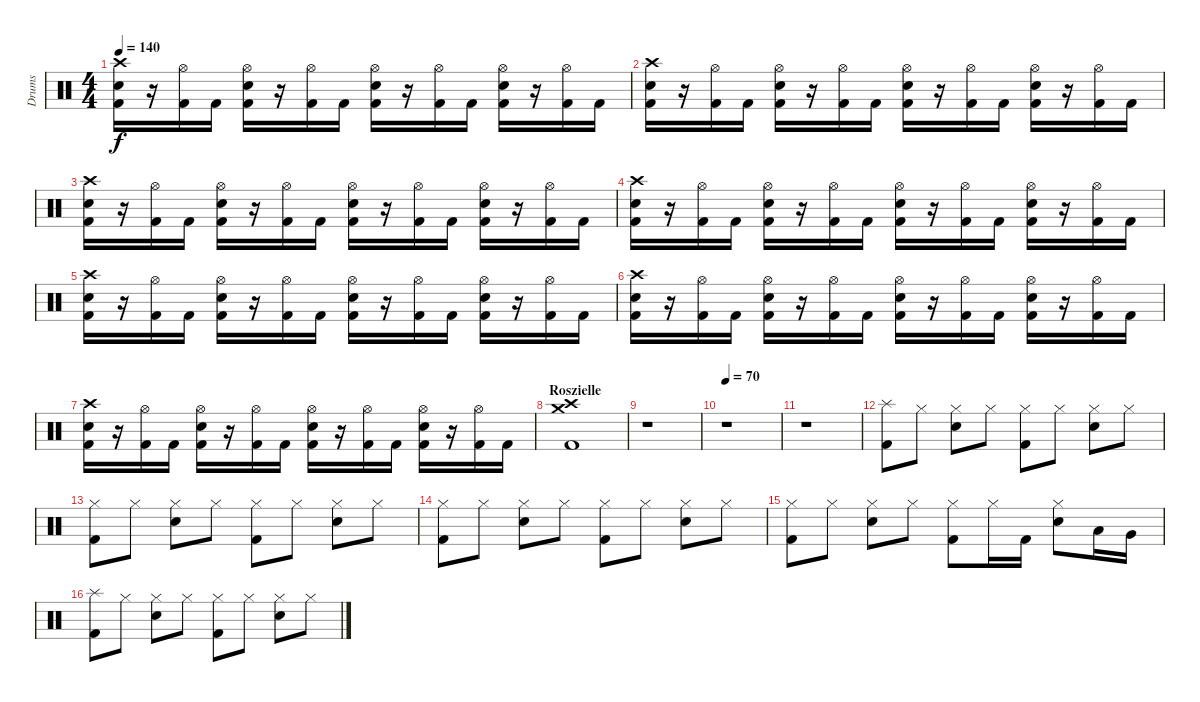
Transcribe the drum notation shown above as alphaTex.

\track ("Drums" "Drums") {instrument percussion}
\staff {score}
\articulation defaults
\ts (4 4)
\tempo 140
\clef neutral
\ks c
("Crash high (hit)" "Electric Snare (hit)" "Kick (hit) 2").16{dy f} r.16 ("Hi-Hat (open)" "Kick (hit) 2").16 "Kick (hit) 2".16 ("Hi-Hat (open)" "Electric Snare (hit)" "Kick (hit) 2").16 r.16 ("Hi-Hat (open)" "Kick (hit) 2").16 "Kick (hit) 2".16 ("Hi-Hat (open)" "Electric Snare (hit)" "Kick (hit) 2").16 r.16 ("Hi-Hat (open)" "Kick (hit) 2").16 "Kick (hit) 2".16 ("Hi-Hat (open)" "Electric Snare (hit)" "Kick (hit) 2").16 r.16 ("Hi-Hat (open)" "Kick (hit) 2").16 "Kick (hit) 2".16 |
("Crash high (hit)" "Electric Snare (hit)" "Kick (hit) 2").16 r.16 ("Hi-Hat (open)" "Kick (hit) 2").16 "Kick (hit) 2".16 ("Hi-Hat (open)" "Electric Snare (hit)" "Kick (hit) 2").16 r.16 ("Hi-Hat (open)" "Kick (hit) 2").16 "Kick (hit) 2".16 ("Hi-Hat (open)" "Electric Snare (hit)" "Kick (hit) 2").16 r.16 ("Hi-Hat (open)" "Kick (hit) 2").16 "Kick (hit) 2".16 ("Hi-Hat (open)" "Electric Snare (hit)" "Kick (hit) 2").16 r.16 ("Hi-Hat (open)" "Kick (hit) 2").16 "Kick (hit) 2".16 |
("Crash high (hit)" "Electric Snare (hit)" "Kick (hit) 2").16 r.16 ("Hi-Hat (open)" "Kick (hit) 2").16 "Kick (hit) 2".16 ("Hi-Hat (open)" "Electric Snare (hit)" "Kick (hit) 2").16 r.16 ("Hi-Hat (open)" "Kick (hit) 2").16 "Kick (hit) 2".16 ("Hi-Hat (open)" "Electric Snare (hit)" "Kick (hit) 2").16 r.16 ("Hi-Hat (open)" "Kick (hit) 2").16 "Kick (hit) 2".16 ("Hi-Hat (open)" "Electric Snare (hit)" "Kick (hit) 2").16 r.16 ("Hi-Hat (open)" "Kick (hit) 2").16 "Kick (hit) 2".16 |
("Crash high (hit)" "Electric Snare (hit)" "Kick (hit) 2").16 r.16 ("Hi-Hat (open)" "Kick (hit) 2").16 "Kick (hit) 2".16 ("Hi-Hat (open)" "Electric Snare (hit)" "Kick (hit) 2").16 r.16 ("Hi-Hat (open)" "Kick (hit) 2").16 "Kick (hit) 2".16 ("Hi-Hat (open)" "Electric Snare (hit)" "Kick (hit) 2").16 r.16 ("Hi-Hat (open)" "Kick (hit) 2").16 "Kick (hit) 2".16 ("Hi-Hat (open)" "Electric Snare (hit)" "Kick (hit) 2").16 r.16 ("Hi-Hat (open)" "Kick (hit) 2").16 "Kick (hit) 2".16 |
("Crash high (hit)" "Electric Snare (hit)" "Kick (hit) 2").16 r.16 ("Hi-Hat (open)" "Kick (hit) 2").16 "Kick (hit) 2".16 ("Hi-Hat (open)" "Electric Snare (hit)" "Kick (hit) 2").16 r.16 ("Hi-Hat (open)" "Kick (hit) 2").16 "Kick (hit) 2".16 ("Hi-Hat (open)" "Electric Snare (hit)" "Kick (hit) 2").16 r.16 ("Hi-Hat (open)" "Kick (hit) 2").16 "Kick (hit) 2".16 ("Hi-Hat (open)" "Electric Snare (hit)" "Kick (hit) 2").16 r.16 ("Hi-Hat (open)" "Kick (hit) 2").16 "Kick (hit) 2".16 |
("Crash high (hit)" "Electric Snare (hit)" "Kick (hit) 2").16 r.16 ("Hi-Hat (open)" "Kick (hit) 2").16 "Kick (hit) 2".16 ("Hi-Hat (open)" "Electric Snare (hit)" "Kick (hit) 2").16 r.16 ("Hi-Hat (open)" "Kick (hit) 2").16 "Kick (hit) 2".16 ("Hi-Hat (open)" "Electric Snare (hit)" "Kick (hit) 2").16 r.16 ("Hi-Hat (open)" "Kick (hit) 2").16 "Kick (hit) 2".16 ("Hi-Hat (open)" "Electric Snare (hit)" "Kick (hit) 2").16 r.16 ("Hi-Hat (open)" "Kick (hit) 2").16 "Kick (hit) 2".16 |
("Crash high (hit)" "Electric Snare (hit)" "Kick (hit) 2").16 r.16 ("Hi-Hat (open)" "Kick (hit) 2").16 "Kick (hit) 2".16 ("Hi-Hat (open)" "Electric Snare (hit)" "Kick (hit) 2").16 r.16 ("Hi-Hat (open)" "Kick (hit) 2").16 "Kick (hit) 2".16 ("Hi-Hat (open)" "Electric Snare (hit)" "Kick (hit) 2").16 r.16 ("Hi-Hat (open)" "Kick (hit) 2").16 "Kick (hit) 2".16 ("Hi-Hat (open)" "Electric Snare (hit)" "Kick (hit) 2").16 r.16 ("Hi-Hat (open)" "Kick (hit) 2").16 "Kick (hit) 2".16 |
\section ("" "Roszielle")
("Crash medium (hit)" "Crash high (hit)" "Kick (hit) 2").1 |
r.1 |
\tempo 70
r.1 |
r.1 |
("Splash (hit)" "Kick (hit) 2").8 "Hi-Hat (closed)".8 ("Hi-Hat (closed)" "Snare (hit) 2").8 "Hi-Hat (closed)".8 ("Hi-Hat (closed)" "Kick (hit) 2").8 "Hi-Hat (closed)".8 ("Hi-Hat (closed)" "Snare (hit) 2").8 "Hi-Hat (closed)".8 |
("Hi-Hat (closed)" "Kick (hit) 2").8 "Hi-Hat (closed)".8 ("Hi-Hat (closed)" "Snare (hit) 2").8 "Hi-Hat (closed)".8 ("Hi-Hat (closed)" "Kick (hit) 2").8 "Hi-Hat (closed)".8 ("Hi-Hat (closed)" "Snare (hit) 2").8 "Hi-Hat (closed)".8 |
("Hi-Hat (closed)" "Kick (hit) 2").8 "Hi-Hat (closed)".8 ("Hi-Hat (closed)" "Snare (hit) 2").8 "Hi-Hat (closed)".8 ("Hi-Hat (closed)" "Kick (hit) 2").8 "Hi-Hat (closed)".8 ("Hi-Hat (closed)" "Snare (hit) 2").8 "Hi-Hat (closed)".8 |
("Hi-Hat (closed)" "Kick (hit) 2").8 "Hi-Hat (closed)".8 ("Hi-Hat (closed)" "Snare (hit) 2").8 "Hi-Hat (closed)".8 ("Hi-Hat (closed)" "Kick (hit) 2").8 "Hi-Hat (closed)".16 "Kick (hit) 2".16 ("Hi-Hat (closed)" "Snare (hit) 2").8 "Low Tom (hit)".16 "Very Low Tom (hit)".16 |
("Splash (hit)" "Kick (hit) 2").8 "Hi-Hat (closed)".8 ("Hi-Hat (closed)" "Snare (hit) 2").8 "Hi-Hat (closed)".8 ("Hi-Hat (closed)" "Kick (hit) 2").8 "Hi-Hat (closed)".8 ("Hi-Hat (closed)" "Snare (hit) 2").8 "Hi-Hat (closed)".8
